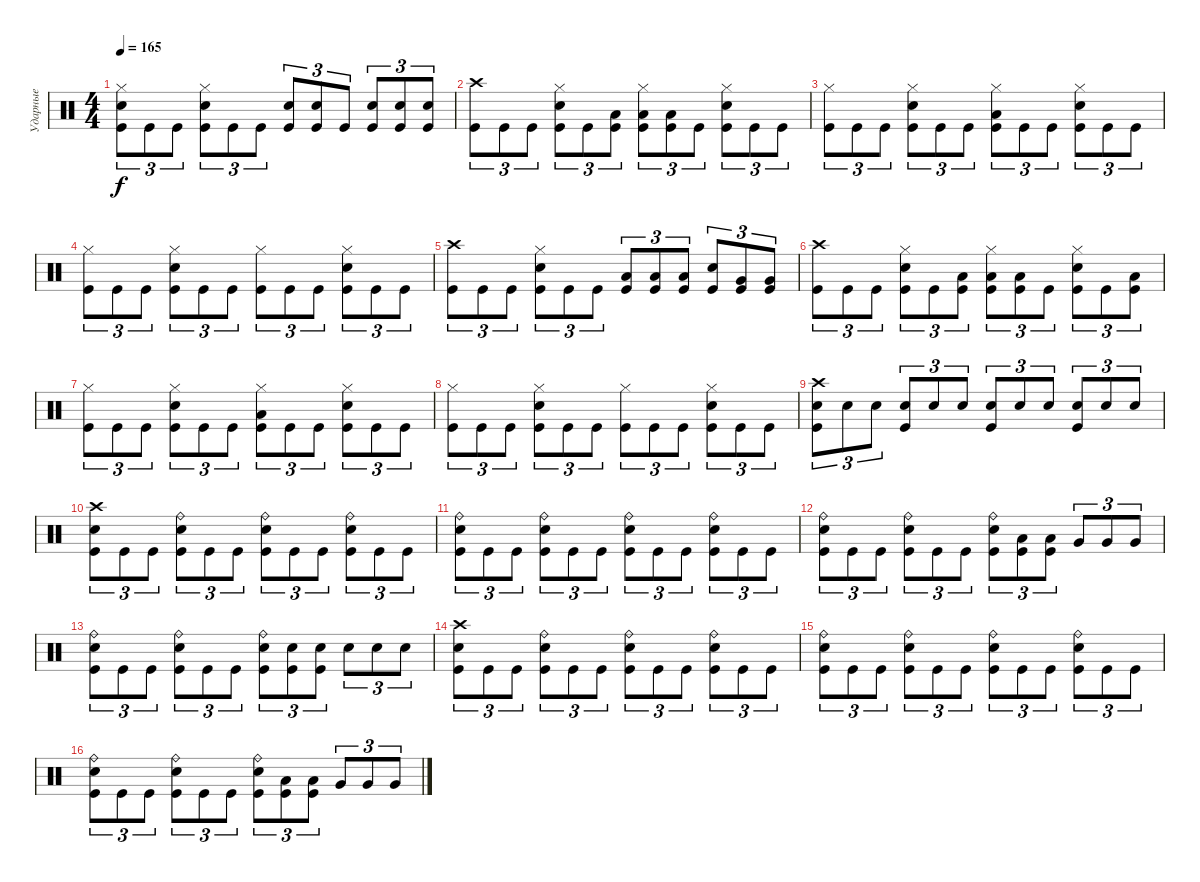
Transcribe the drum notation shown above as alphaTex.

\track ("Ударные" "Ударные") {instrument percussion}
\staff {score}
\articulation defaults
\ts (4 4)
\tempo 165
\clef neutral
\ks c
("Hi-Hat (closed)" "Electric Snare (hit)" "Kick (hit)").8{tu (3 2) dy f} "Kick (hit)".8{tu (3 2)} "Kick (hit)".8{tu (3 2)} ("Hi-Hat (closed)" "Electric Snare (hit)" "Kick (hit)").8{tu (3 2)} "Kick (hit)".8{tu (3 2)} "Kick (hit)".8{tu (3 2)} ("Electric Snare (hit)" "Kick (hit)").8{tu (3 2)} ("Electric Snare (hit)" "Kick (hit)").8{tu (3 2)} "Kick (hit)".8{tu (3 2)} ("Electric Snare (hit)" "Kick (hit)").8{tu (3 2)} ("Electric Snare (hit)" "Kick (hit)").8{tu (3 2)} ("Electric Snare (hit)" "Kick (hit)").8{tu (3 2)} |
("Crash high (hit)" "Kick (hit)").8{tu (3 2)} "Kick (hit)".8{tu (3 2)} "Kick (hit)".8{tu (3 2)} ("Hi-Hat (closed)" "Electric Snare (hit)" "Kick (hit)").8{tu (3 2)} "Kick (hit)".8{tu (3 2)} ("Low Tom (hit)" "Kick (hit)").8{tu (3 2)} ("Hi-Hat (closed)" "Low Tom (hit)" "Kick (hit)").8{tu (3 2)} ("Low Tom (hit)" "Kick (hit)").8{tu (3 2)} "Kick (hit)".8{tu (3 2)} ("Hi-Hat (closed)" "Electric Snare (hit)" "Kick (hit)").8{tu (3 2)} "Kick (hit)".8{tu (3 2)} "Kick (hit)".8{tu (3 2)} |
("Hi-Hat (closed)" "Kick (hit)").8{tu (3 2)} "Kick (hit)".8{tu (3 2)} "Kick (hit)".8{tu (3 2)} ("Hi-Hat (closed)" "Electric Snare (hit)" "Kick (hit)").8{tu (3 2)} "Kick (hit)".8{tu (3 2)} "Kick (hit)".8{tu (3 2)} ("Hi-Hat (closed)" "Low Tom (hit)" "Kick (hit)").8{tu (3 2)} "Kick (hit)".8{tu (3 2)} "Kick (hit)".8{tu (3 2)} ("Hi-Hat (closed)" "Electric Snare (hit)" "Kick (hit)").8{tu (3 2)} "Kick (hit)".8{tu (3 2)} "Kick (hit)".8{tu (3 2)} |
("Hi-Hat (closed)" "Kick (hit)").8{tu (3 2)} "Kick (hit)".8{tu (3 2)} "Kick (hit)".8{tu (3 2)} ("Hi-Hat (closed)" "Electric Snare (hit)" "Kick (hit)").8{tu (3 2)} "Kick (hit)".8{tu (3 2)} "Kick (hit)".8{tu (3 2)} ("Hi-Hat (closed)" "Kick (hit)").8{tu (3 2)} "Kick (hit)".8{tu (3 2)} "Kick (hit)".8{tu (3 2)} ("Hi-Hat (closed)" "Electric Snare (hit)" "Kick (hit)").8{tu (3 2)} "Kick (hit)".8{tu (3 2)} "Kick (hit)".8{tu (3 2)} |
("Crash high (hit)" "Kick (hit)").8{tu (3 2)} "Kick (hit)".8{tu (3 2)} "Kick (hit)".8{tu (3 2)} ("Hi-Hat (closed)" "Electric Snare (hit)" "Kick (hit)").8{tu (3 2)} "Kick (hit)".8{tu (3 2)} "Kick (hit)".8{tu (3 2)} ("Low Tom (hit)" "Kick (hit)").8{tu (3 2)} ("Low Tom (hit)" "Kick (hit)").8{tu (3 2)} ("Low Tom (hit)" "Kick (hit)").8{tu (3 2)} ("Electric Snare (hit)" "Kick (hit)").8{tu (3 2)} ("Very Low Tom (hit)" "Kick (hit)").8{tu (3 2)} ("Very Low Tom (hit)" "Kick (hit)").8{tu (3 2)} |
("Crash high (hit)" "Kick (hit)").8{tu (3 2)} "Kick (hit)".8{tu (3 2)} "Kick (hit)".8{tu (3 2)} ("Hi-Hat (closed)" "Electric Snare (hit)" "Kick (hit)").8{tu (3 2)} "Kick (hit)".8{tu (3 2)} ("Low Tom (hit)" "Kick (hit)").8{tu (3 2)} ("Hi-Hat (closed)" "Low Tom (hit)" "Kick (hit)").8{tu (3 2)} ("Low Tom (hit)" "Kick (hit)").8{tu (3 2)} "Kick (hit)".8{tu (3 2)} ("Hi-Hat (closed)" "Electric Snare (hit)" "Kick (hit)").8{tu (3 2)} "Kick (hit)".8{tu (3 2)} ("Low Tom (hit)" "Kick (hit)").8{tu (3 2)} |
("Hi-Hat (closed)" "Kick (hit)").8{tu (3 2)} "Kick (hit)".8{tu (3 2)} "Kick (hit)".8{tu (3 2)} ("Hi-Hat (closed)" "Electric Snare (hit)" "Kick (hit)").8{tu (3 2)} "Kick (hit)".8{tu (3 2)} "Kick (hit)".8{tu (3 2)} ("Hi-Hat (closed)" "Low Tom (hit)" "Kick (hit)").8{tu (3 2)} "Kick (hit)".8{tu (3 2)} "Kick (hit)".8{tu (3 2)} ("Hi-Hat (closed)" "Electric Snare (hit)" "Kick (hit)").8{tu (3 2)} "Kick (hit)".8{tu (3 2)} "Kick (hit)".8{tu (3 2)} |
("Hi-Hat (closed)" "Kick (hit)").8{tu (3 2)} "Kick (hit)".8{tu (3 2)} "Kick (hit)".8{tu (3 2)} ("Hi-Hat (closed)" "Electric Snare (hit)" "Kick (hit)").8{tu (3 2)} "Kick (hit)".8{tu (3 2)} "Kick (hit)".8{tu (3 2)} ("Hi-Hat (closed)" "Kick (hit)").8{tu (3 2)} "Kick (hit)".8{tu (3 2)} "Kick (hit)".8{tu (3 2)} ("Hi-Hat (closed)" "Electric Snare (hit)" "Kick (hit)").8{tu (3 2)} "Kick (hit)".8{tu (3 2)} "Kick (hit)".8{tu (3 2)} |
("Crash high (hit)" "Electric Snare (hit)" "Kick (hit)").8{tu (3 2)} "Electric Snare (hit)".8{tu (3 2)} "Electric Snare (hit)".8{tu (3 2)} ("Electric Snare (hit)" "Kick (hit)").8{tu (3 2)} "Electric Snare (hit)".8{tu (3 2)} "Electric Snare (hit)".8{tu (3 2)} ("Electric Snare (hit)" "Kick (hit)").8{tu (3 2)} "Electric Snare (hit)".8{tu (3 2)} "Electric Snare (hit)".8{tu (3 2)} ("Electric Snare (hit)" "Kick (hit)").8{tu (3 2)} "Electric Snare (hit)".8{tu (3 2)} "Electric Snare (hit)".8{tu (3 2)} |
("Crash high (hit)" "Electric Snare (hit)" "Kick (hit)").8{tu (3 2)} "Kick (hit)".8{tu (3 2)} "Kick (hit)".8{tu (3 2)} ("Ride (bell)" "Electric Snare (hit)" "Kick (hit)").8{tu (3 2)} "Kick (hit)".8{tu (3 2)} "Kick (hit)".8{tu (3 2)} ("Ride (bell)" "Electric Snare (hit)" "Kick (hit)").8{tu (3 2)} "Kick (hit)".8{tu (3 2)} "Kick (hit)".8{tu (3 2)} ("Ride (bell)" "Electric Snare (hit)" "Kick (hit)").8{tu (3 2)} "Kick (hit)".8{tu (3 2)} "Kick (hit)".8{tu (3 2)} |
("Ride (bell)" "Electric Snare (hit)" "Kick (hit)").8{tu (3 2)} "Kick (hit)".8{tu (3 2)} "Kick (hit)".8{tu (3 2)} ("Ride (bell)" "Electric Snare (hit)" "Kick (hit)").8{tu (3 2)} "Kick (hit)".8{tu (3 2)} "Kick (hit)".8{tu (3 2)} ("Ride (bell)" "Electric Snare (hit)" "Kick (hit)").8{tu (3 2)} "Kick (hit)".8{tu (3 2)} "Kick (hit)".8{tu (3 2)} ("Ride (bell)" "Electric Snare (hit)" "Kick (hit)").8{tu (3 2)} "Kick (hit)".8{tu (3 2)} "Kick (hit)".8{tu (3 2)} |
("Ride (bell)" "Electric Snare (hit)" "Kick (hit)").8{tu (3 2)} "Kick (hit)".8{tu (3 2)} "Kick (hit)".8{tu (3 2)} ("Ride (bell)" "Electric Snare (hit)" "Kick (hit)").8{tu (3 2)} "Kick (hit)".8{tu (3 2)} "Kick (hit)".8{tu (3 2)} ("Ride (bell)" "Electric Snare (hit)" "Kick (hit)").8{tu (3 2)} ("Low Tom (hit)" "Kick (hit)").8{tu (3 2)} ("Low Tom (hit)" "Kick (hit)").8{tu (3 2)} "Very Low Tom (hit)".8{tu (3 2)} "Very Low Tom (hit)".8{tu (3 2)} "Very Low Tom (hit)".8{tu (3 2)} |
("Ride (bell)" "Electric Snare (hit)" "Kick (hit)").8{tu (3 2)} "Kick (hit)".8{tu (3 2)} "Kick (hit)".8{tu (3 2)} ("Ride (bell)" "Electric Snare (hit)" "Kick (hit)").8{tu (3 2)} "Kick (hit)".8{tu (3 2)} "Kick (hit)".8{tu (3 2)} ("Ride (bell)" "Electric Snare (hit)" "Kick (hit)").8{tu (3 2)} ("Electric Snare (hit)" "Kick (hit)").8{tu (3 2)} ("Electric Snare (hit)" "Kick (hit)").8{tu (3 2)} "Electric Snare (hit)".8{tu (3 2)} "Electric Snare (hit)".8{tu (3 2)} "Electric Snare (hit)".8{tu (3 2)} |
("Crash high (hit)" "Electric Snare (hit)" "Kick (hit)").8{tu (3 2)} "Kick (hit)".8{tu (3 2)} "Kick (hit)".8{tu (3 2)} ("Ride (bell)" "Electric Snare (hit)" "Kick (hit)").8{tu (3 2)} "Kick (hit)".8{tu (3 2)} "Kick (hit)".8{tu (3 2)} ("Ride (bell)" "Electric Snare (hit)" "Kick (hit)").8{tu (3 2)} "Kick (hit)".8{tu (3 2)} "Kick (hit)".8{tu (3 2)} ("Ride (bell)" "Electric Snare (hit)" "Kick (hit)").8{tu (3 2)} "Kick (hit)".8{tu (3 2)} "Kick (hit)".8{tu (3 2)} |
("Ride (bell)" "Electric Snare (hit)" "Kick (hit)").8{tu (3 2)} "Kick (hit)".8{tu (3 2)} "Kick (hit)".8{tu (3 2)} ("Ride (bell)" "Electric Snare (hit)" "Kick (hit)").8{tu (3 2)} "Kick (hit)".8{tu (3 2)} "Kick (hit)".8{tu (3 2)} ("Ride (bell)" "Electric Snare (hit)" "Kick (hit)").8{tu (3 2)} "Kick (hit)".8{tu (3 2)} "Kick (hit)".8{tu (3 2)} ("Ride (bell)" "Electric Snare (hit)" "Kick (hit)").8{tu (3 2)} "Kick (hit)".8{tu (3 2)} "Kick (hit)".8{tu (3 2)} |
("Ride (bell)" "Electric Snare (hit)" "Kick (hit)").8{tu (3 2)} "Kick (hit)".8{tu (3 2)} "Kick (hit)".8{tu (3 2)} ("Ride (bell)" "Electric Snare (hit)" "Kick (hit)").8{tu (3 2)} "Kick (hit)".8{tu (3 2)} "Kick (hit)".8{tu (3 2)} ("Ride (bell)" "Electric Snare (hit)" "Kick (hit)").8{tu (3 2)} ("Low Tom (hit)" "Kick (hit)").8{tu (3 2)} ("Low Tom (hit)" "Kick (hit)").8{tu (3 2)} "Very Low Tom (hit)".8{tu (3 2)} "Very Low Tom (hit)".8{tu (3 2)} "Very Low Tom (hit)".8{tu (3 2)}
